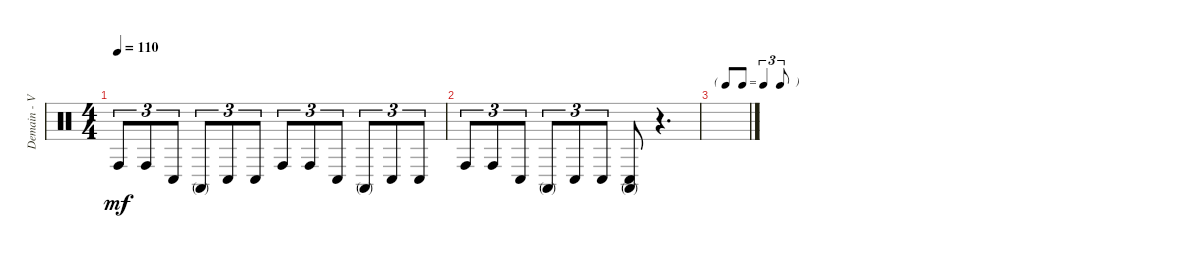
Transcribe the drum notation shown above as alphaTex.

\track ("Demain - Various Perc." "Demain - V") {instrument percussion}
\staff {score}
\articulation defaults
\ts (4 4)
\tempo 110
\clef neutral
\ks c "Conga high (hit)".8{tu (3 2) dy mf} "Conga high (hit)".8{tu (3 2)} "Conga low (hit)".8{tu (3 2)} "Conga high (mute)".8{tu (3 2)} "Conga low (hit)".8{tu (3 2)} "Conga low (hit)".8{tu (3 2)} "Conga high (hit)".8{tu (3 2)} "Conga high (hit)".8{tu (3 2)} "Conga low (hit)".8{tu (3 2)} "Conga high (mute)".8{tu (3 2)} "Conga low (hit)".8{tu (3 2)} "Conga low (hit)".8{tu (3 2)}
|
"Conga high (hit)".8{tu (3 2)} "Conga high (hit)".8{tu (3 2)} "Conga low (hit)".8{tu (3 2)} "Conga high (mute)".8{tu (3 2)} "Conga low (hit)".8{tu (3 2)} "Conga low (hit)".8{tu (3 2)} ("Conga low (hit)" "Conga high (mute)").8 r.4{d} |
\tf triplet8th
